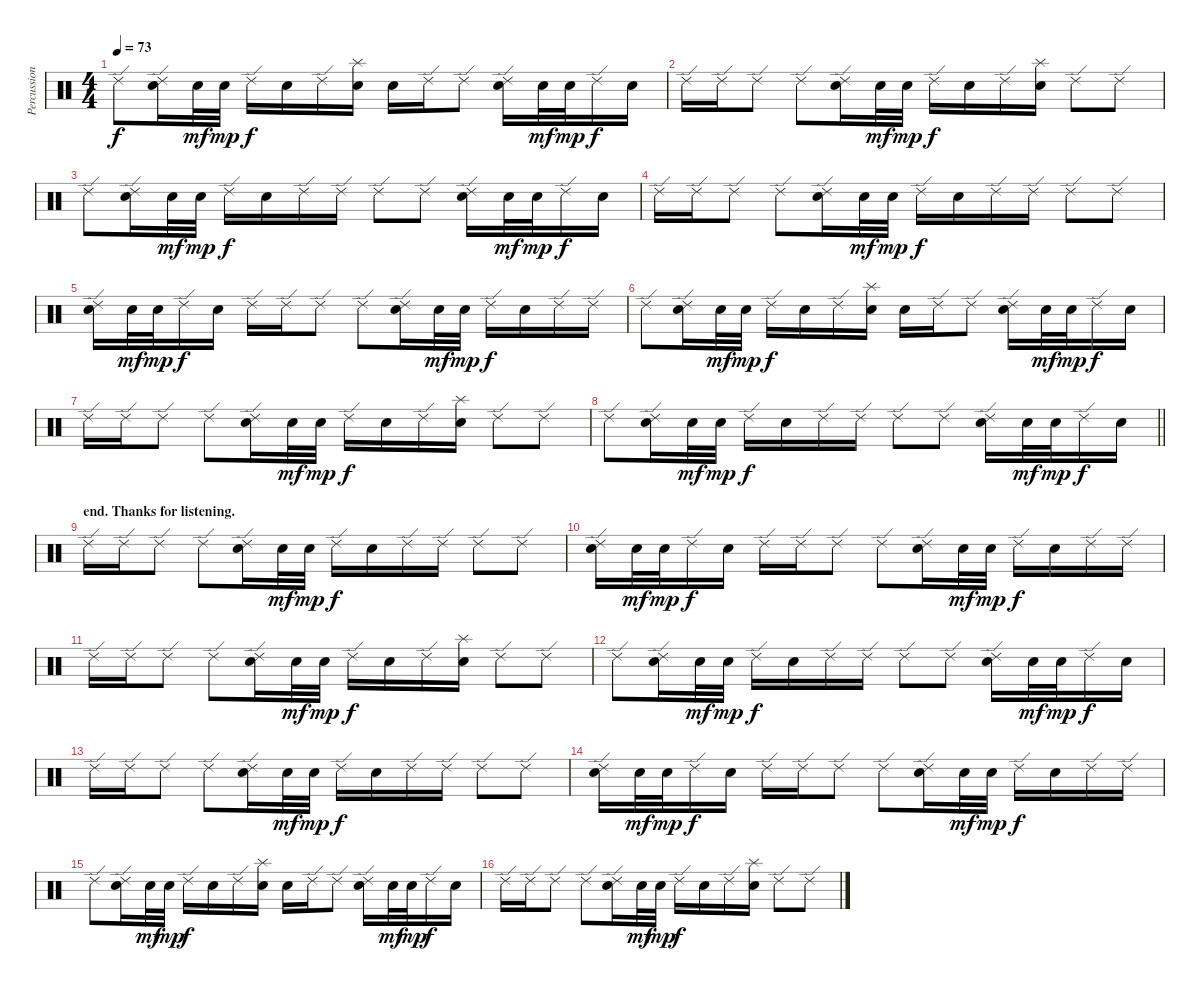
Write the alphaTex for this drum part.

\track ("Percussion" "Percussion") {instrument percussion}
\staff {score}
\articulation defaults
\ts (4 4)
\tempo 73
\clef neutral
\ks c "Ride (edge) 2".8{dy f}
("Ride (edge) 2" "Electric Snare (hit)").16 "Electric Snare (hit)".32{dy mf} "Electric Snare (hit)".32{dy mp} "Ride (edge) 2".16{dy f} "Electric Snare (hit)".16 "Ride (edge) 2".16 ("Splash (hit)" "Electric Snare (hit)").16 "Electric Snare (hit)".16 "Ride (edge) 2".16 "Ride (edge) 2".8 ("Ride (edge) 2" "Electric Snare (hit)").16 "Electric Snare (hit)".32{dy mf} "Electric Snare (hit)".32{dy mp} "Ride (edge) 2".16{dy f} "Electric Snare (hit)".16 |
"Ride (edge) 2".16 "Ride (edge) 2".16 "Ride (edge) 2".8 "Ride (edge) 2".8 ("Ride (edge) 2" "Electric Snare (hit)").16 "Electric Snare (hit)".32{dy mf} "Electric Snare (hit)".32{dy mp} "Ride (edge) 2".16{dy f} "Electric Snare (hit)".16 "Ride (edge) 2".16 ("Splash (hit)" "Electric Snare (hit)").16 "Ride (edge) 2".8 "Ride (edge) 2".8 |
"Ride (edge) 2".8 ("Ride (edge) 2" "Electric Snare (hit)").16 "Electric Snare (hit)".32{dy mf} "Electric Snare (hit)".32{dy mp} "Ride (edge) 2".16{dy f} "Electric Snare (hit)".16 "Ride (edge) 2".16 "Ride (edge) 2".16 "Ride (edge) 2".8 "Ride (edge) 2".8 ("Ride (edge) 2" "Electric Snare (hit)").16 "Electric Snare (hit)".32{dy mf} "Electric Snare (hit)".32{dy mp} "Ride (edge) 2".16{dy f} "Electric Snare (hit)".16 |
"Ride (edge) 2".16 "Ride (edge) 2".16 "Ride (edge) 2".8 "Ride (edge) 2".8 ("Ride (edge) 2" "Electric Snare (hit)").16 "Electric Snare (hit)".32{dy mf} "Electric Snare (hit)".32{dy mp} "Ride (edge) 2".16{dy f} "Electric Snare (hit)".16 "Ride (edge) 2".16 "Ride (edge) 2".16 "Ride (edge) 2".8 "Ride (edge) 2".8 |
("Ride (edge) 2" "Electric Snare (hit)").16 "Electric Snare (hit)".32{dy mf} "Electric Snare (hit)".32{dy mp} "Ride (edge) 2".16{dy f} "Electric Snare (hit)".16 "Ride (edge) 2".16 "Ride (edge) 2".16 "Ride (edge) 2".8 "Ride (edge) 2".8 ("Ride (edge) 2" "Electric Snare (hit)").16 "Electric Snare (hit)".32{dy mf} "Electric Snare (hit)".32{dy mp} "Ride (edge) 2".16{dy f} "Electric Snare (hit)".16 "Ride (edge) 2".16 "Ride (edge) 2".16 |
"Ride (edge) 2".8 ("Ride (edge) 2" "Electric Snare (hit)").16 "Electric Snare (hit)".32{dy mf} "Electric Snare (hit)".32{dy mp} "Ride (edge) 2".16{dy f} "Electric Snare (hit)".16 "Ride (edge) 2".16 ("Splash (hit)" "Electric Snare (hit)").16 "Electric Snare (hit)".16 "Ride (edge) 2".16 "Ride (edge) 2".8 ("Ride (edge) 2" "Electric Snare (hit)").16 "Electric Snare (hit)".32{dy mf} "Electric Snare (hit)".32{dy mp} "Ride (edge) 2".16{dy f} "Electric Snare (hit)".16 |
"Ride (edge) 2".16 "Ride (edge) 2".16 "Ride (edge) 2".8 "Ride (edge) 2".8 ("Ride (edge) 2" "Electric Snare (hit)").16 "Electric Snare (hit)".32{dy mf} "Electric Snare (hit)".32{dy mp} "Ride (edge) 2".16{dy f} "Electric Snare (hit)".16 "Ride (edge) 2".16 ("Splash (hit)" "Electric Snare (hit)").16 "Ride (edge) 2".8 "Ride (edge) 2".8 |
\barLineRight lightlight "Ride (edge) 2".8
("Ride (edge) 2" "Electric Snare (hit)").16 "Electric Snare (hit)".32{dy mf} "Electric Snare (hit)".32{dy mp} "Ride (edge) 2".16{dy f} "Electric Snare (hit)".16 "Ride (edge) 2".16 "Ride (edge) 2".16 "Ride (edge) 2".8 "Ride (edge) 2".8 ("Ride (edge) 2" "Electric Snare (hit)").16 "Electric Snare (hit)".32{dy mf} "Electric Snare (hit)".32{dy mp} "Ride (edge) 2".16{dy f} "Electric Snare (hit)".16 |
\section ("" "end. Thanks for listening.")
"Ride (edge) 2".16 "Ride (edge) 2".16 "Ride (edge) 2".8 "Ride (edge) 2".8 ("Ride (edge) 2" "Electric Snare (hit)").16 "Electric Snare (hit)".32{dy mf} "Electric Snare (hit)".32{dy mp} "Ride (edge) 2".16{dy f} "Electric Snare (hit)".16 "Ride (edge) 2".16 "Ride (edge) 2".16 "Ride (edge) 2".8 "Ride (edge) 2".8 |
("Ride (edge) 2" "Electric Snare (hit)").16 "Electric Snare (hit)".32{dy mf} "Electric Snare (hit)".32{dy mp} "Ride (edge) 2".16{dy f} "Electric Snare (hit)".16 "Ride (edge) 2".16 "Ride (edge) 2".16 "Ride (edge) 2".8 "Ride (edge) 2".8 ("Ride (edge) 2" "Electric Snare (hit)").16 "Electric Snare (hit)".32{dy mf} "Electric Snare (hit)".32{dy mp} "Ride (edge) 2".16{dy f} "Electric Snare (hit)".16 "Ride (edge) 2".16 "Ride (edge) 2".16 |
"Ride (edge) 2".16 "Ride (edge) 2".16 "Ride (edge) 2".8 "Ride (edge) 2".8 ("Ride (edge) 2" "Electric Snare (hit)").16 "Electric Snare (hit)".32{dy mf} "Electric Snare (hit)".32{dy mp} "Ride (edge) 2".16{dy f} "Electric Snare (hit)".16 "Ride (edge) 2".16 ("Splash (hit)" "Electric Snare (hit)").16 "Ride (edge) 2".8 "Ride (edge) 2".8 |
"Ride (edge) 2".8 ("Ride (edge) 2" "Electric Snare (hit)").16 "Electric Snare (hit)".32{dy mf} "Electric Snare (hit)".32{dy mp} "Ride (edge) 2".16{dy f} "Electric Snare (hit)".16 "Ride (edge) 2".16 "Ride (edge) 2".16 "Ride (edge) 2".8 "Ride (edge) 2".8 ("Ride (edge) 2" "Electric Snare (hit)").16 "Electric Snare (hit)".32{dy mf} "Electric Snare (hit)".32{dy mp} "Ride (edge) 2".16{dy f} "Electric Snare (hit)".16 |
"Ride (edge) 2".16 "Ride (edge) 2".16 "Ride (edge) 2".8 "Ride (edge) 2".8 ("Ride (edge) 2" "Electric Snare (hit)").16 "Electric Snare (hit)".32{dy mf} "Electric Snare (hit)".32{dy mp} "Ride (edge) 2".16{dy f} "Electric Snare (hit)".16 "Ride (edge) 2".16 "Ride (edge) 2".16 "Ride (edge) 2".8 "Ride (edge) 2".8 |
("Ride (edge) 2" "Electric Snare (hit)").16 "Electric Snare (hit)".32{dy mf} "Electric Snare (hit)".32{dy mp} "Ride (edge) 2".16{dy f} "Electric Snare (hit)".16 "Ride (edge) 2".16 "Ride (edge) 2".16 "Ride (edge) 2".8 "Ride (edge) 2".8 ("Ride (edge) 2" "Electric Snare (hit)").16 "Electric Snare (hit)".32{dy mf} "Electric Snare (hit)".32{dy mp} "Ride (edge) 2".16{dy f} "Electric Snare (hit)".16 "Ride (edge) 2".16 "Ride (edge) 2".16 |
"Ride (edge) 2".8{volume 0} ("Ride (edge) 2" "Electric Snare (hit)").16 "Electric Snare (hit)".32{dy mf} "Electric Snare (hit)".32{dy mp} "Ride (edge) 2".16{dy f} "Electric Snare (hit)".16 "Ride (edge) 2".16 ("Splash (hit)" "Electric Snare (hit)").16 "Electric Snare (hit)".16 "Ride (edge) 2".16 "Ride (edge) 2".8 ("Ride (edge) 2" "Electric Snare (hit)").16 "Electric Snare (hit)".32{dy mf} "Electric Snare (hit)".32{dy mp} "Ride (edge) 2".16{dy f} "Electric Snare (hit)".16 |
"Ride (edge) 2".16 "Ride (edge) 2".16 "Ride (edge) 2".8 "Ride (edge) 2".8 ("Ride (edge) 2" "Electric Snare (hit)").16 "Electric Snare (hit)".32{dy mf} "Electric Snare (hit)".32{dy mp} "Ride (edge) 2".16{dy f} "Electric Snare (hit)".16 "Ride (edge) 2".16 ("Splash (hit)" "Electric Snare (hit)").16 "Ride (edge) 2".8 "Ride (edge) 2".8
